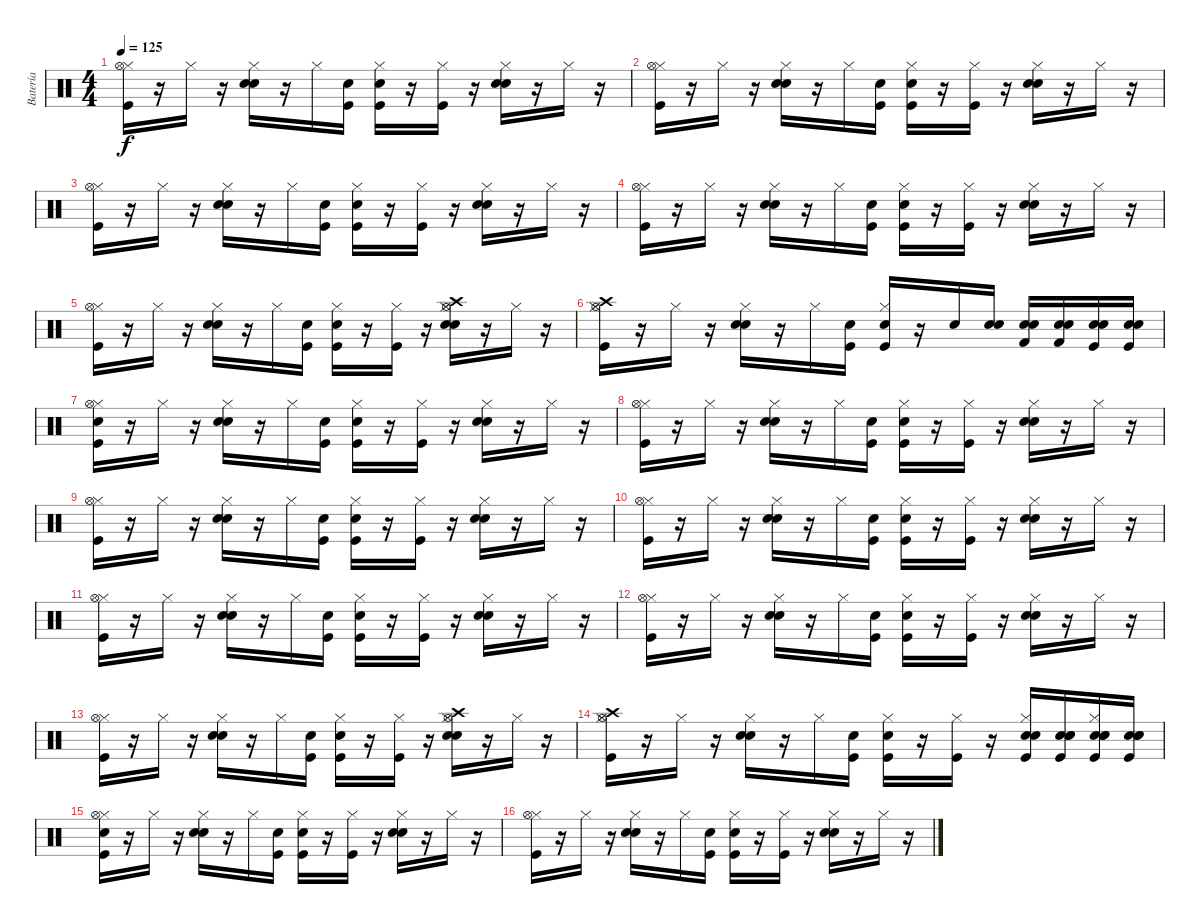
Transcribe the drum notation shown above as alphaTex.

\track ("Batería" "Batería") {instrument percussion}
\staff {score}
\articulation defaults
\ts (4 4)
\tempo 125
\clef neutral
\ks c
("Kick (hit)" "Hi-Hat (closed)" "Hi-Hat (open)").16{dy f} r.16 "Hi-Hat (closed)".16 r.16 ("Snare (hit) 2" "Electric Snare (hit)" "Hi-Hat (closed)").16 r.16 "Hi-Hat (closed)".16 ("Snare (hit)" "Kick (hit)").16 ("Snare (hit)" "Kick (hit)" "Hi-Hat (closed)").16 r.16 ("Kick (hit)" "Hi-Hat (closed)").16 r.16 ("Snare (hit) 2" "Electric Snare (hit)" "Hi-Hat (closed)").16 r.16 "Hi-Hat (closed)".16 r.16 |
("Kick (hit)" "Hi-Hat (closed)" "Hi-Hat (open)").16 r.16 "Hi-Hat (closed)".16 r.16 ("Snare (hit) 2" "Electric Snare (hit)" "Hi-Hat (closed)").16 r.16 "Hi-Hat (closed)".16 ("Snare (hit)" "Kick (hit)").16 ("Snare (hit)" "Kick (hit)" "Hi-Hat (closed)").16 r.16 ("Kick (hit)" "Hi-Hat (closed)").16 r.16 ("Snare (hit) 2" "Electric Snare (hit)" "Hi-Hat (closed)").16 r.16 "Hi-Hat (closed)".16 r.16 |
("Kick (hit)" "Hi-Hat (closed)" "Hi-Hat (open)").16 r.16 "Hi-Hat (closed)".16 r.16 ("Snare (hit) 2" "Electric Snare (hit)" "Hi-Hat (closed)").16 r.16 "Hi-Hat (closed)".16 ("Snare (hit)" "Kick (hit)").16 ("Snare (hit)" "Kick (hit)" "Hi-Hat (closed)").16 r.16 ("Kick (hit)" "Hi-Hat (closed)").16 r.16 ("Snare (hit) 2" "Electric Snare (hit)" "Hi-Hat (closed)").16 r.16 "Hi-Hat (closed)".16 r.16 |
("Kick (hit)" "Hi-Hat (closed)" "Hi-Hat (open)").16 r.16 "Hi-Hat (closed)".16 r.16 ("Snare (hit) 2" "Electric Snare (hit)" "Hi-Hat (closed)").16 r.16 "Hi-Hat (closed)".16 ("Snare (hit)" "Kick (hit)").16 ("Snare (hit)" "Kick (hit)" "Hi-Hat (closed)").16 r.16 ("Kick (hit)" "Hi-Hat (closed)").16 r.16 ("Snare (hit) 2" "Electric Snare (hit)" "Hi-Hat (closed)").16 r.16 "Hi-Hat (closed)".16 r.16 |
("Kick (hit)" "Hi-Hat (closed)" "Hi-Hat (open)").16 r.16 "Hi-Hat (closed)".16 r.16 ("Electric Snare (hit)" "Snare (hit) 2" "Hi-Hat (closed)").16 r.16 "Hi-Hat (closed)".16 ("Snare (hit)" "Kick (hit)").16 ("Snare (hit)" "Kick (hit)" "Hi-Hat (closed)").16 r.16 ("Kick (hit)" "Hi-Hat (closed)").16 r.16 ("Hi-Hat (open)" "Crash high (hit)" "Snare (hit) 2" "Electric Snare (hit)" "Hi-Hat (closed)").16 r.16 "Hi-Hat (closed)".16 r.16 |
("Crash high (hit)" "Kick (hit)" "Hi-Hat (closed)" "Hi-Hat (open)").16 r.16 "Hi-Hat (closed)".16 r.16 ("Snare (hit) 2" "Electric Snare (hit)" "Hi-Hat (closed)").16 r.16 "Hi-Hat (closed)".16 ("Snare (hit)" "Kick (hit)").16 ("Snare (hit)" "Kick (hit)" "Hi-Hat (closed)").16 r.16 "Electric Snare (hit)".16 ("Snare (hit)" "Electric Snare (hit)").16 ("Snare (hit)" "Kick (hit) 2" "Electric Snare (hit)").16 ("Snare (hit)" "Kick (hit) 2" "Electric Snare (hit)").16 ("Snare (hit)" "Snare (hit) 2" "Kick (hit)").16 ("Snare (hit)" "Snare (hit) 2" "Kick (hit)").16 |
("Snare (hit)" "Hi-Hat (closed)" "Kick (hit)" "Hi-Hat (open)").16 r.16 "Hi-Hat (closed)".16 r.16 ("Snare (hit) 2" "Electric Snare (hit)" "Hi-Hat (closed)").16 r.16 "Hi-Hat (closed)".16 ("Snare (hit)" "Kick (hit)").16 ("Snare (hit)" "Hi-Hat (closed)" "Kick (hit)").16 r.16 ("Hi-Hat (closed)" "Kick (hit)").16 r.16 ("Hi-Hat (closed)" "Snare (hit) 2" "Electric Snare (hit)").16 r.16 "Hi-Hat (closed)".16 r.16 |
("Hi-Hat (closed)" "Kick (hit)" "Hi-Hat (open)").16 r.16 "Hi-Hat (closed)".16 r.16 ("Snare (hit) 2" "Electric Snare (hit)" "Hi-Hat (closed)").16 r.16 "Hi-Hat (closed)".16 ("Snare (hit)" "Kick (hit)").16 ("Snare (hit)" "Hi-Hat (closed)" "Kick (hit)").16 r.16 ("Hi-Hat (closed)" "Kick (hit)").16 r.16 ("Hi-Hat (closed)" "Snare (hit) 2" "Electric Snare (hit)").16 r.16 "Hi-Hat (closed)".16 r.16 |
("Kick (hit)" "Hi-Hat (closed)" "Hi-Hat (open)").16 r.16 "Hi-Hat (closed)".16 r.16 ("Snare (hit) 2" "Electric Snare (hit)" "Hi-Hat (closed)").16 r.16 "Hi-Hat (closed)".16 ("Snare (hit)" "Kick (hit)").16 ("Snare (hit)" "Kick (hit)" "Hi-Hat (closed)").16 r.16 ("Kick (hit)" "Hi-Hat (closed)").16 r.16 ("Snare (hit) 2" "Electric Snare (hit)" "Hi-Hat (closed)").16 r.16 "Hi-Hat (closed)".16 r.16 |
("Kick (hit)" "Hi-Hat (closed)" "Hi-Hat (open)").16 r.16 "Hi-Hat (closed)".16 r.16 ("Snare (hit) 2" "Electric Snare (hit)" "Hi-Hat (closed)").16 r.16 "Hi-Hat (closed)".16 ("Snare (hit)" "Kick (hit)").16 ("Snare (hit)" "Kick (hit)" "Hi-Hat (closed)").16 r.16 ("Kick (hit)" "Hi-Hat (closed)").16 r.16 ("Snare (hit) 2" "Electric Snare (hit)" "Hi-Hat (closed)").16 r.16 "Hi-Hat (closed)".16 r.16 |
("Kick (hit)" "Hi-Hat (closed)" "Hi-Hat (open)").16 r.16 "Hi-Hat (closed)".16 r.16 ("Snare (hit) 2" "Electric Snare (hit)" "Hi-Hat (closed)").16 r.16 "Hi-Hat (closed)".16 ("Snare (hit)" "Kick (hit)").16 ("Snare (hit)" "Kick (hit)" "Hi-Hat (closed)").16 r.16 ("Kick (hit)" "Hi-Hat (closed)").16 r.16 ("Snare (hit) 2" "Electric Snare (hit)" "Hi-Hat (closed)").16 r.16 "Hi-Hat (closed)".16 r.16 |
("Kick (hit)" "Hi-Hat (closed)" "Hi-Hat (open)").16 r.16 "Hi-Hat (closed)".16 r.16 ("Snare (hit) 2" "Electric Snare (hit)" "Hi-Hat (closed)").16 r.16 "Hi-Hat (closed)".16 ("Snare (hit)" "Kick (hit)").16 ("Snare (hit)" "Kick (hit)" "Hi-Hat (closed)").16 r.16 ("Kick (hit)" "Hi-Hat (closed)").16 r.16 ("Snare (hit) 2" "Electric Snare (hit)" "Hi-Hat (closed)").16 r.16 "Hi-Hat (closed)".16 r.16 |
("Kick (hit)" "Hi-Hat (closed)" "Hi-Hat (open)").16 r.16 "Hi-Hat (closed)".16 r.16 ("Electric Snare (hit)" "Snare (hit) 2" "Hi-Hat (closed)").16 r.16 "Hi-Hat (closed)".16 ("Snare (hit)" "Kick (hit)").16 ("Snare (hit)" "Kick (hit)" "Hi-Hat (closed)").16 r.16 ("Kick (hit)" "Hi-Hat (closed)").16 r.16 ("Hi-Hat (open)" "Crash high (hit)" "Snare (hit) 2" "Electric Snare (hit)" "Hi-Hat (closed)").16 r.16 "Hi-Hat (closed)".16 r.16 |
("Crash high (hit)" "Kick (hit)" "Hi-Hat (closed)" "Hi-Hat (open)").16 r.16 "Hi-Hat (closed)".16 r.16 ("Snare (hit) 2" "Electric Snare (hit)" "Hi-Hat (closed)").16 r.16 "Hi-Hat (closed)".16 ("Snare (hit)" "Kick (hit)").16 ("Snare (hit)" "Kick (hit)" "Hi-Hat (closed)").16 r.16 ("Kick (hit)" "Hi-Hat (closed)").16 r.16 ("Kick (hit)" "Snare (hit) 2" "Electric Snare (hit)" "Hi-Hat (closed)").16 ("Snare (hit)" "Electric Snare (hit)" "Snare (hit) 2" "Kick (hit)").16 ("Snare (hit)" "Snare (hit) 2" "Electric Snare (hit)" "Kick (hit)" "Hi-Hat (closed)").16 ("Snare (hit)" "Electric Snare (hit)" "Snare (hit) 2" "Kick (hit)").16 |
("Snare (hit)" "Hi-Hat (closed)" "Kick (hit)" "Hi-Hat (open)").16 r.16 "Hi-Hat (closed)".16 r.16 ("Snare (hit) 2" "Electric Snare (hit)" "Hi-Hat (closed)").16 r.16 "Hi-Hat (closed)".16 ("Snare (hit)" "Kick (hit)").16 ("Snare (hit)" "Hi-Hat (closed)" "Kick (hit)").16 r.16 ("Hi-Hat (closed)" "Kick (hit)").16 r.16 ("Hi-Hat (closed)" "Snare (hit) 2" "Electric Snare (hit)").16 r.16 "Hi-Hat (closed)".16 r.16 |
("Hi-Hat (closed)" "Kick (hit)" "Hi-Hat (open)").16 r.16 "Hi-Hat (closed)".16 r.16 ("Snare (hit) 2" "Electric Snare (hit)" "Hi-Hat (closed)").16 r.16 "Hi-Hat (closed)".16 ("Snare (hit)" "Kick (hit)").16 ("Snare (hit)" "Hi-Hat (closed)" "Kick (hit)").16 r.16 ("Hi-Hat (closed)" "Kick (hit)").16 r.16 ("Hi-Hat (closed)" "Snare (hit) 2" "Electric Snare (hit)").16 r.16 "Hi-Hat (closed)".16 r.16
